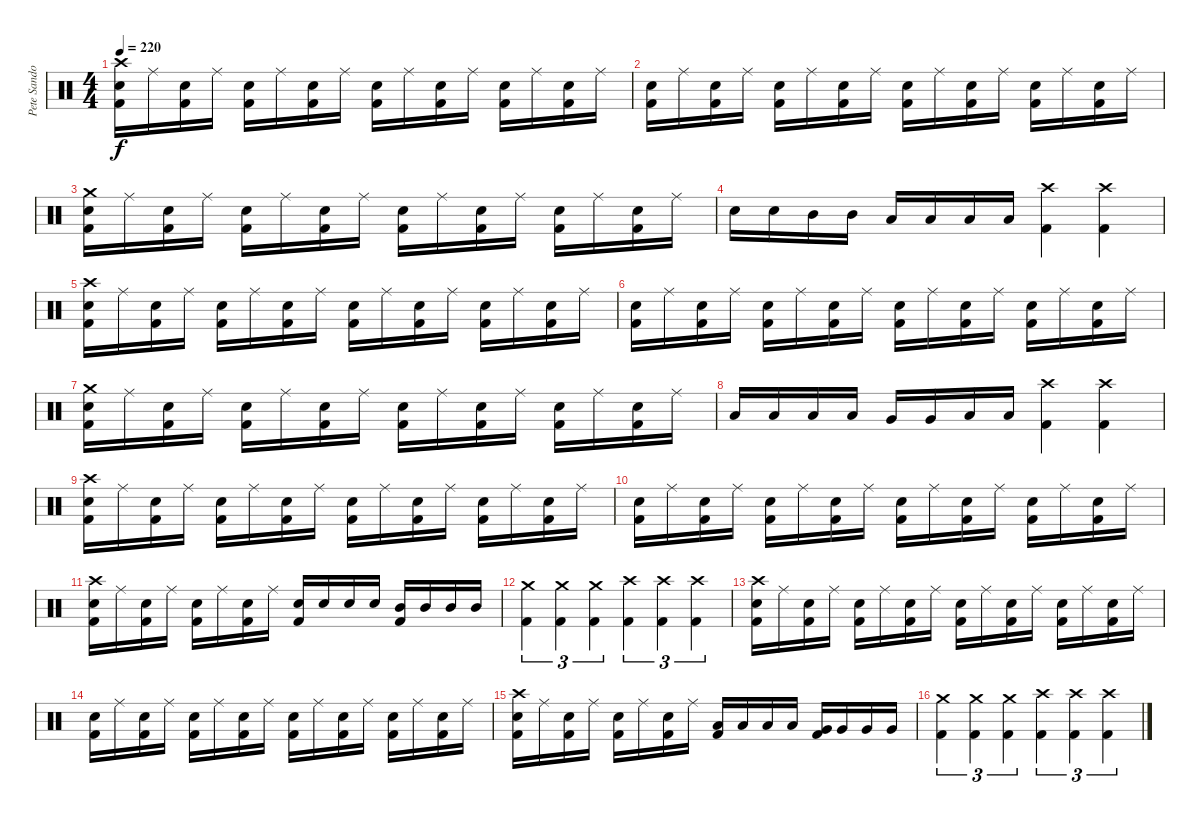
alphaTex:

\track ("Pete Sandoval" "Pete Sando") {instrument percussion}
\staff {score}
\articulation defaults
\ts (4 4)
\tempo 220
\clef neutral
\ks c
("Crash high (hit)" "Kick (hit) 2" "Electric Snare (hit)").16{dy f} "Ride (middle)".16 ("Kick (hit) 2" "Electric Snare (hit)").16 "Ride (middle)".16 ("Kick (hit) 2" "Electric Snare (hit)").16 "Ride (middle)".16 ("Kick (hit) 2" "Electric Snare (hit)").16 "Ride (middle)".16 ("Kick (hit) 2" "Electric Snare (hit)").16 "Ride (middle)".16 ("Kick (hit) 2" "Electric Snare (hit)").16 "Ride (middle)".16 ("Kick (hit) 2" "Electric Snare (hit)").16 "Ride (middle)".16 ("Kick (hit) 2" "Electric Snare (hit)").16 "Ride (middle)".16 |
("Kick (hit) 2" "Electric Snare (hit)").16 "Ride (middle)".16 ("Kick (hit) 2" "Electric Snare (hit)").16 "Ride (middle)".16 ("Kick (hit) 2" "Electric Snare (hit)").16 "Ride (middle)".16 ("Kick (hit) 2" "Electric Snare (hit)").16 "Ride (middle)".16 ("Kick (hit) 2" "Electric Snare (hit)").16 "Ride (middle)".16 ("Kick (hit) 2" "Electric Snare (hit)").16 "Ride (middle)".16 ("Kick (hit) 2" "Electric Snare (hit)").16 "Ride (middle)".16 ("Kick (hit) 2" "Electric Snare (hit)").16 "Ride (middle)".16 |
("Crash medium (hit)" "Kick (hit) 2" "Electric Snare (hit)").16 "Ride (middle)".16 ("Kick (hit) 2" "Electric Snare (hit)").16 "Ride (middle)".16 ("Kick (hit) 2" "Electric Snare (hit)").16 "Ride (middle)".16 ("Kick (hit) 2" "Electric Snare (hit)").16 "Ride (middle)".16 ("Kick (hit) 2" "Electric Snare (hit)").16 "Ride (middle)".16 ("Kick (hit) 2" "Electric Snare (hit)").16 "Ride (middle)".16 ("Kick (hit) 2" "Electric Snare (hit)").16 "Ride (middle)".16 ("Kick (hit) 2" "Electric Snare (hit)").16 "Ride (middle)".16 |
"Electric Snare (hit)".16 "Electric Snare (hit)".16 "Mid Tom (hit)".16 "Mid Tom (hit)".16 "Low Tom (hit)".16 "Low Tom (hit)".16 "Low Tom (hit)".16 "Low Tom (hit)".16 ("Crash high (hit)" "Kick (hit) 2").4 ("Crash high (hit)" "Kick (hit) 2").4 |
("Crash high (hit)" "Kick (hit) 2" "Electric Snare (hit)").16 "Ride (middle)".16 ("Kick (hit) 2" "Electric Snare (hit)").16 "Ride (middle)".16 ("Kick (hit) 2" "Electric Snare (hit)").16 "Ride (middle)".16 ("Kick (hit) 2" "Electric Snare (hit)").16 "Ride (middle)".16 ("Kick (hit) 2" "Electric Snare (hit)").16 "Ride (middle)".16 ("Kick (hit) 2" "Electric Snare (hit)").16 "Ride (middle)".16 ("Kick (hit) 2" "Electric Snare (hit)").16 "Ride (middle)".16 ("Kick (hit) 2" "Electric Snare (hit)").16 "Ride (middle)".16 |
("Kick (hit) 2" "Electric Snare (hit)").16 "Ride (middle)".16 ("Kick (hit) 2" "Electric Snare (hit)").16 "Ride (middle)".16 ("Kick (hit) 2" "Electric Snare (hit)").16 "Ride (middle)".16 ("Kick (hit) 2" "Electric Snare (hit)").16 "Ride (middle)".16 ("Kick (hit) 2" "Electric Snare (hit)").16 "Ride (middle)".16 ("Kick (hit) 2" "Electric Snare (hit)").16 "Ride (middle)".16 ("Kick (hit) 2" "Electric Snare (hit)").16 "Ride (middle)".16 ("Kick (hit) 2" "Electric Snare (hit)").16 "Ride (middle)".16 |
("Crash medium (hit)" "Kick (hit) 2" "Electric Snare (hit)").16 "Ride (middle)".16 ("Kick (hit) 2" "Electric Snare (hit)").16 "Ride (middle)".16 ("Kick (hit) 2" "Electric Snare (hit)").16 "Ride (middle)".16 ("Kick (hit) 2" "Electric Snare (hit)").16 "Ride (middle)".16 ("Kick (hit) 2" "Electric Snare (hit)").16 "Ride (middle)".16 ("Kick (hit) 2" "Electric Snare (hit)").16 "Ride (middle)".16 ("Kick (hit) 2" "Electric Snare (hit)").16 "Ride (middle)".16 ("Kick (hit) 2" "Electric Snare (hit)").16 "Ride (middle)".16 |
"Low Tom (hit)".16 "Low Tom (hit)".16 "Low Tom (hit)".16 "Low Tom (hit)".16 "Very Low Tom (hit)".16 "Very Low Tom (hit)".16 "Low Tom (hit)".16 "Low Tom (hit)".16 ("Crash high (hit)" "Kick (hit) 2").4 ("Crash high (hit)" "Kick (hit) 2").4 |
("Crash high (hit)" "Kick (hit) 2" "Electric Snare (hit)").16 "Ride (middle)".16 ("Kick (hit) 2" "Electric Snare (hit)").16 "Ride (middle)".16 ("Kick (hit) 2" "Electric Snare (hit)").16 "Ride (middle)".16 ("Kick (hit) 2" "Electric Snare (hit)").16 "Ride (middle)".16 ("Kick (hit) 2" "Electric Snare (hit)").16 "Ride (middle)".16 ("Kick (hit) 2" "Electric Snare (hit)").16 "Ride (middle)".16 ("Kick (hit) 2" "Electric Snare (hit)").16 "Ride (middle)".16 ("Kick (hit) 2" "Electric Snare (hit)").16 "Ride (middle)".16 |
("Kick (hit) 2" "Electric Snare (hit)").16 "Ride (middle)".16 ("Kick (hit) 2" "Electric Snare (hit)").16 "Ride (middle)".16 ("Kick (hit) 2" "Electric Snare (hit)").16 "Ride (middle)".16 ("Kick (hit) 2" "Electric Snare (hit)").16 "Ride (middle)".16 ("Kick (hit) 2" "Electric Snare (hit)").16 "Ride (middle)".16 ("Kick (hit) 2" "Electric Snare (hit)").16 "Ride (middle)".16 ("Kick (hit) 2" "Electric Snare (hit)").16 "Ride (middle)".16 ("Kick (hit) 2" "Electric Snare (hit)").16 "Ride (middle)".16 |
("Crash high (hit)" "Kick (hit) 2" "Electric Snare (hit)").16 "Ride (middle)".16 ("Kick (hit) 2" "Electric Snare (hit)").16 "Ride (middle)".16 ("Kick (hit) 2" "Electric Snare (hit)").16 "Ride (middle)".16 ("Kick (hit) 2" "Electric Snare (hit)").16 "Ride (middle)".16 ("Kick (hit) 2" "Electric Snare (hit)").16 "Electric Snare (hit)".16 "Electric Snare (hit)".16 "Electric Snare (hit)".16 ("Kick (hit) 2" "Mid Tom (hit)").16 "Mid Tom (hit)".16 "Mid Tom (hit)".16 "Mid Tom (hit)".16 |
("Crash medium (hit)" "Kick (hit) 2").4{tu (3 2)} ("Crash medium (hit)" "Kick (hit) 2").4{tu (3 2)} ("Crash medium (hit)" "Kick (hit) 2").4{tu (3 2)} ("Crash high (hit)" "Kick (hit) 2").4{tu (3 2)} ("Crash high (hit)" "Kick (hit) 2").4{tu (3 2)} ("Crash high (hit)" "Kick (hit) 2").4{tu (3 2)} |
("Crash high (hit)" "Kick (hit) 2" "Electric Snare (hit)").16 "Ride (middle)".16 ("Kick (hit) 2" "Electric Snare (hit)").16 "Ride (middle)".16 ("Kick (hit) 2" "Electric Snare (hit)").16 "Ride (middle)".16 ("Kick (hit) 2" "Electric Snare (hit)").16 "Ride (middle)".16 ("Kick (hit) 2" "Electric Snare (hit)").16 "Ride (middle)".16 ("Kick (hit) 2" "Electric Snare (hit)").16 "Ride (middle)".16 ("Kick (hit) 2" "Electric Snare (hit)").16 "Ride (middle)".16 ("Kick (hit) 2" "Electric Snare (hit)").16 "Ride (middle)".16 |
("Kick (hit) 2" "Electric Snare (hit)").16 "Ride (middle)".16 ("Kick (hit) 2" "Electric Snare (hit)").16 "Ride (middle)".16 ("Kick (hit) 2" "Electric Snare (hit)").16 "Ride (middle)".16 ("Kick (hit) 2" "Electric Snare (hit)").16 "Ride (middle)".16 ("Kick (hit) 2" "Electric Snare (hit)").16 "Ride (middle)".16 ("Kick (hit) 2" "Electric Snare (hit)").16 "Ride (middle)".16 ("Kick (hit) 2" "Electric Snare (hit)").16 "Ride (middle)".16 ("Kick (hit) 2" "Electric Snare (hit)").16 "Ride (middle)".16 |
("Crash high (hit)" "Kick (hit) 2" "Electric Snare (hit)").16 "Ride (middle)".16 ("Kick (hit) 2" "Electric Snare (hit)").16 "Ride (middle)".16 ("Kick (hit) 2" "Electric Snare (hit)").16 "Ride (middle)".16 ("Kick (hit) 2" "Electric Snare (hit)").16 "Ride (middle)".16 ("Kick (hit) 2" "Low Tom (hit)").16 "Low Tom (hit)".16 "Low Tom (hit)".16 "Low Tom (hit)".16 ("Kick (hit) 2" "Very Low Tom (hit)").16 "Very Low Tom (hit)".16 "Very Low Tom (hit)".16 "Very Low Tom (hit)".16 |
("Crash medium (hit)" "Kick (hit) 2").4{tu (3 2)} ("Crash medium (hit)" "Kick (hit) 2").4{tu (3 2)} ("Crash medium (hit)" "Kick (hit) 2").4{tu (3 2)} ("Crash high (hit)" "Kick (hit) 2").4{tu (3 2)} ("Crash high (hit)" "Kick (hit) 2").4{tu (3 2)} ("Crash high (hit)" "Kick (hit) 2").4{tu (3 2)}
